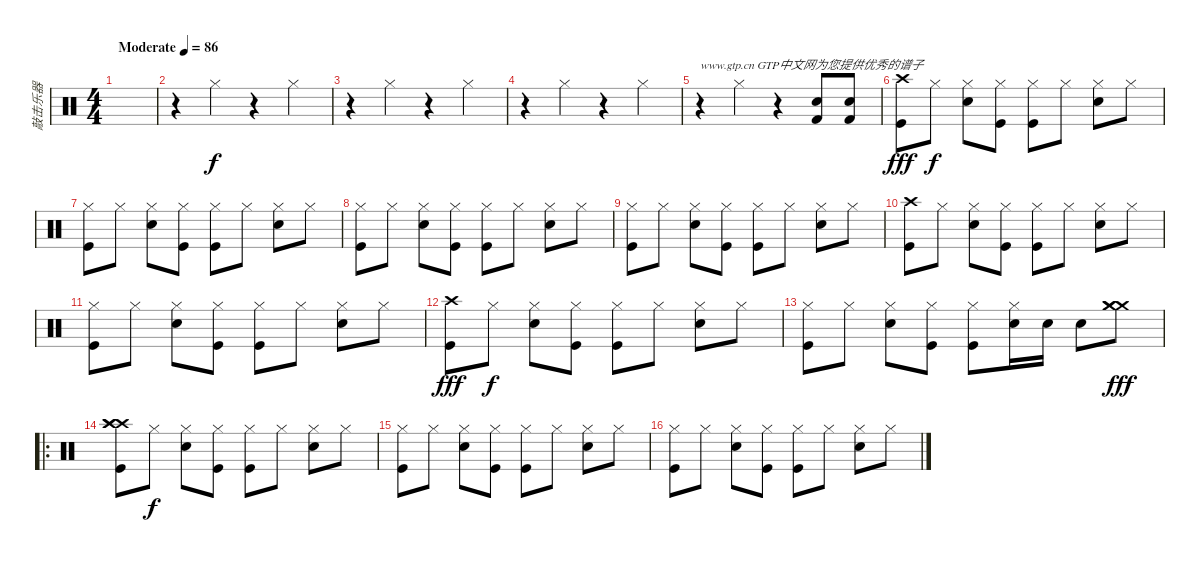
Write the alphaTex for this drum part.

\track ("敲击乐器" "敲击乐器") {instrument percussion}
\staff {score}
\articulation defaults
\ts (4 4)
\tempo (86 "Moderate")
\clef neutral
\ks c
|
r.4 "Hi-Hat (closed)".4 r.4 "Hi-Hat (closed)".4 |
r.4 "Hi-Hat (closed)".4 r.4 "Hi-Hat (closed)".4 |
r.4 "Hi-Hat (closed)".4 r.4 "Hi-Hat (closed)".4 |
r.4{txt "www.gtp.cn GTP中文网为您提供优秀的谱子"} "Hi-Hat (closed)".4 r.4 ("Snare (hit) 2" "Kick (hit) 2").8 ("Snare (hit) 2" "Kick (hit) 2").8 |
("Crash high (hit)" "Kick (hit)").8{dy fff} "Hi-Hat (closed)".8{dy f} ("Hi-Hat (closed)" "Electric Snare (hit)").8 ("Hi-Hat (closed)" "Kick (hit)").8 ("Hi-Hat (closed)" "Kick (hit)").8 "Hi-Hat (closed)".8 ("Hi-Hat (closed)" "Electric Snare (hit)").8 "Hi-Hat (closed)".8 |
("Hi-Hat (closed)" "Kick (hit)").8 "Hi-Hat (closed)".8 ("Hi-Hat (closed)" "Electric Snare (hit)").8 ("Hi-Hat (closed)" "Kick (hit)").8 ("Hi-Hat (closed)" "Kick (hit)").8 "Hi-Hat (closed)".8 ("Hi-Hat (closed)" "Electric Snare (hit)").8 "Hi-Hat (closed)".8 |
("Hi-Hat (closed)" "Kick (hit)").8 "Hi-Hat (closed)".8 ("Hi-Hat (closed)" "Electric Snare (hit)").8 ("Hi-Hat (closed)" "Kick (hit)").8 ("Hi-Hat (closed)" "Kick (hit)").8 "Hi-Hat (closed)".8 ("Hi-Hat (closed)" "Electric Snare (hit)").8 "Hi-Hat (closed)".8 |
("Hi-Hat (closed)" "Kick (hit)").8 "Hi-Hat (closed)".8 ("Hi-Hat (closed)" "Electric Snare (hit)").8 ("Hi-Hat (closed)" "Kick (hit)").8 ("Hi-Hat (closed)" "Kick (hit)").8 "Hi-Hat (closed)".8 ("Hi-Hat (closed)" "Electric Snare (hit)").8 "Hi-Hat (closed)".8 |
("Crash high (hit)" "Kick (hit)").8 "Hi-Hat (closed)".8 ("Hi-Hat (closed)" "Electric Snare (hit)").8 ("Hi-Hat (closed)" "Kick (hit)").8 ("Hi-Hat (closed)" "Kick (hit)").8 "Hi-Hat (closed)".8 ("Hi-Hat (closed)" "Electric Snare (hit)").8 "Hi-Hat (closed)".8 |
("Hi-Hat (closed)" "Kick (hit)").8 "Hi-Hat (closed)".8 ("Hi-Hat (closed)" "Electric Snare (hit)").8 ("Hi-Hat (closed)" "Kick (hit)").8 ("Hi-Hat (closed)" "Kick (hit)").8 "Hi-Hat (closed)".8 ("Hi-Hat (closed)" "Electric Snare (hit)").8 "Hi-Hat (closed)".8 |
("Crash high (hit)" "Kick (hit)").8{dy fff} "Hi-Hat (closed)".8{dy f} ("Hi-Hat (closed)" "Electric Snare (hit)").8 ("Hi-Hat (closed)" "Kick (hit)").8 ("Hi-Hat (closed)" "Kick (hit)").8 "Hi-Hat (closed)".8 ("Hi-Hat (closed)" "Electric Snare (hit)").8 "Hi-Hat (closed)".8 |
("Hi-Hat (closed)" "Kick (hit)").8 "Hi-Hat (closed)".8 ("Hi-Hat (closed)" "Electric Snare (hit)").8 ("Hi-Hat (closed)" "Kick (hit)").8 ("Hi-Hat (closed)" "Kick (hit)").8 ("Hi-Hat (closed)" "Electric Snare (hit)").16 "Electric Snare (hit)".16 "Electric Snare (hit)".8 ("Crash medium (hit)" "Crash medium (hit)" "Crash medium (hit)").8{dy fff} |
\ro
("Crash high (hit)" "Crash high (hit)" "Crash high (hit)" "Kick (hit)").8 "Hi-Hat (closed)".8{dy f} ("Hi-Hat (closed)" "Electric Snare (hit)").8 ("Hi-Hat (closed)" "Kick (hit)").8 ("Hi-Hat (closed)" "Kick (hit)").8 "Hi-Hat (closed)".8 ("Hi-Hat (closed)" "Electric Snare (hit)").8 "Hi-Hat (closed)".8 |
("Hi-Hat (closed)" "Kick (hit)").8 "Hi-Hat (closed)".8 ("Hi-Hat (closed)" "Electric Snare (hit)").8 ("Hi-Hat (closed)" "Kick (hit)").8 ("Hi-Hat (closed)" "Kick (hit)").8 "Hi-Hat (closed)".8 ("Hi-Hat (closed)" "Electric Snare (hit)").8 "Hi-Hat (closed)".8 |
("Hi-Hat (closed)" "Kick (hit)").8 "Hi-Hat (closed)".8 ("Hi-Hat (closed)" "Electric Snare (hit)").8 ("Hi-Hat (closed)" "Kick (hit)").8 ("Hi-Hat (closed)" "Kick (hit)").8 "Hi-Hat (closed)".8 ("Hi-Hat (closed)" "Electric Snare (hit)").8 "Hi-Hat (closed)".8
